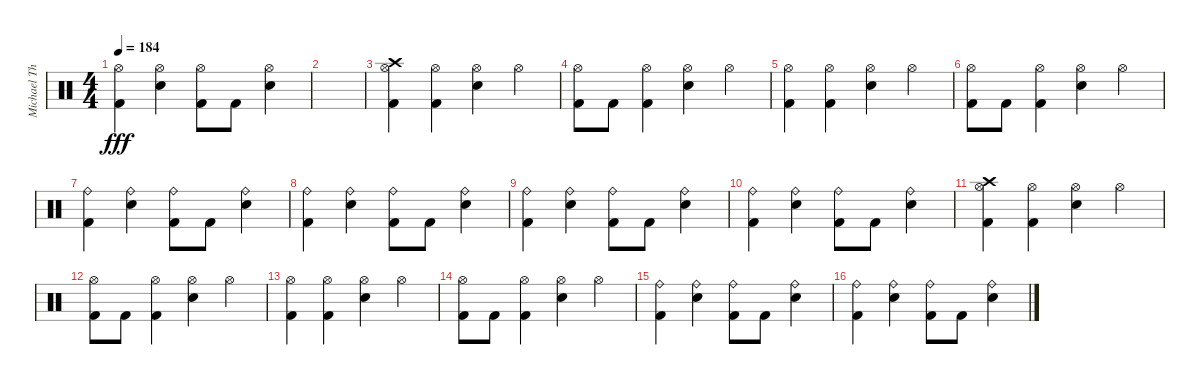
\track ("Michael Thomas - Drums" "Michael Th") {instrument percussion}
\staff {score}
\articulation defaults
\ts (4 4)
\tempo 184
\clef neutral
\ks c
("Hi-Hat (open)" "Kick (hit) 2").4{dy fff} ("Hi-Hat (open)" "Snare (hit) 2").4 ("Hi-Hat (open)" "Kick (hit) 2").8 "Kick (hit) 2".8 ("Hi-Hat (open)" "Snare (hit) 2").4 |
|
("Crash high (hit)" "Hi-Hat (open)" "Kick (hit) 2").4 ("Hi-Hat (open)" "Kick (hit) 2").4 ("Hi-Hat (open)" "Snare (hit) 2").4 "Hi-Hat (open)".4 |
("Hi-Hat (open)" "Kick (hit) 2").8 "Kick (hit) 2".8 ("Hi-Hat (open)" "Kick (hit) 2").4 ("Hi-Hat (open)" "Snare (hit) 2").4 "Hi-Hat (open)".4 |
("Hi-Hat (open)" "Kick (hit) 2").4 ("Hi-Hat (open)" "Kick (hit) 2").4 ("Hi-Hat (open)" "Snare (hit) 2").4 "Hi-Hat (open)".4 |
("Hi-Hat (open)" "Kick (hit) 2").8 "Kick (hit) 2".8 ("Hi-Hat (open)" "Kick (hit) 2").4 ("Hi-Hat (open)" "Snare (hit) 2").4 "Hi-Hat (open)".4 |
("Ride (bell)" "Kick (hit) 2").4 ("Ride (bell)" "Snare (hit) 2").4 ("Ride (bell)" "Kick (hit) 2").8 "Kick (hit) 2".8 ("Ride (bell)" "Snare (hit) 2").4 |
("Ride (bell)" "Kick (hit) 2").4 ("Ride (bell)" "Snare (hit) 2").4 ("Ride (bell)" "Kick (hit) 2").8 "Kick (hit) 2".8 ("Ride (bell)" "Snare (hit) 2").4 |
("Ride (bell)" "Kick (hit) 2").4 ("Ride (bell)" "Snare (hit) 2").4 ("Ride (bell)" "Kick (hit) 2").8 "Kick (hit) 2".8 ("Ride (bell)" "Snare (hit) 2").4 |
("Ride (bell)" "Kick (hit) 2").4 ("Ride (bell)" "Snare (hit) 2").4 ("Ride (bell)" "Kick (hit) 2").8 "Kick (hit) 2".8 ("Ride (bell)" "Snare (hit) 2").4 |
("Crash high (hit)" "Hi-Hat (open)" "Kick (hit) 2").4 ("Hi-Hat (open)" "Kick (hit) 2").4 ("Hi-Hat (open)" "Snare (hit) 2").4 "Hi-Hat (open)".4 |
("Hi-Hat (open)" "Kick (hit) 2").8 "Kick (hit) 2".8 ("Hi-Hat (open)" "Kick (hit) 2").4 ("Hi-Hat (open)" "Snare (hit) 2").4 "Hi-Hat (open)".4 |
("Hi-Hat (open)" "Kick (hit) 2").4 ("Hi-Hat (open)" "Kick (hit) 2").4 ("Hi-Hat (open)" "Snare (hit) 2").4 "Hi-Hat (open)".4 |
("Hi-Hat (open)" "Kick (hit) 2").8 "Kick (hit) 2".8 ("Hi-Hat (open)" "Kick (hit) 2").4 ("Hi-Hat (open)" "Snare (hit) 2").4 "Hi-Hat (open)".4 |
("Ride (bell)" "Kick (hit) 2").4 ("Ride (bell)" "Snare (hit) 2").4 ("Ride (bell)" "Kick (hit) 2").8 "Kick (hit) 2".8 ("Ride (bell)" "Snare (hit) 2").4 |
("Ride (bell)" "Kick (hit) 2").4 ("Ride (bell)" "Snare (hit) 2").4 ("Ride (bell)" "Kick (hit) 2").8 "Kick (hit) 2".8 ("Ride (bell)" "Snare (hit) 2").4
